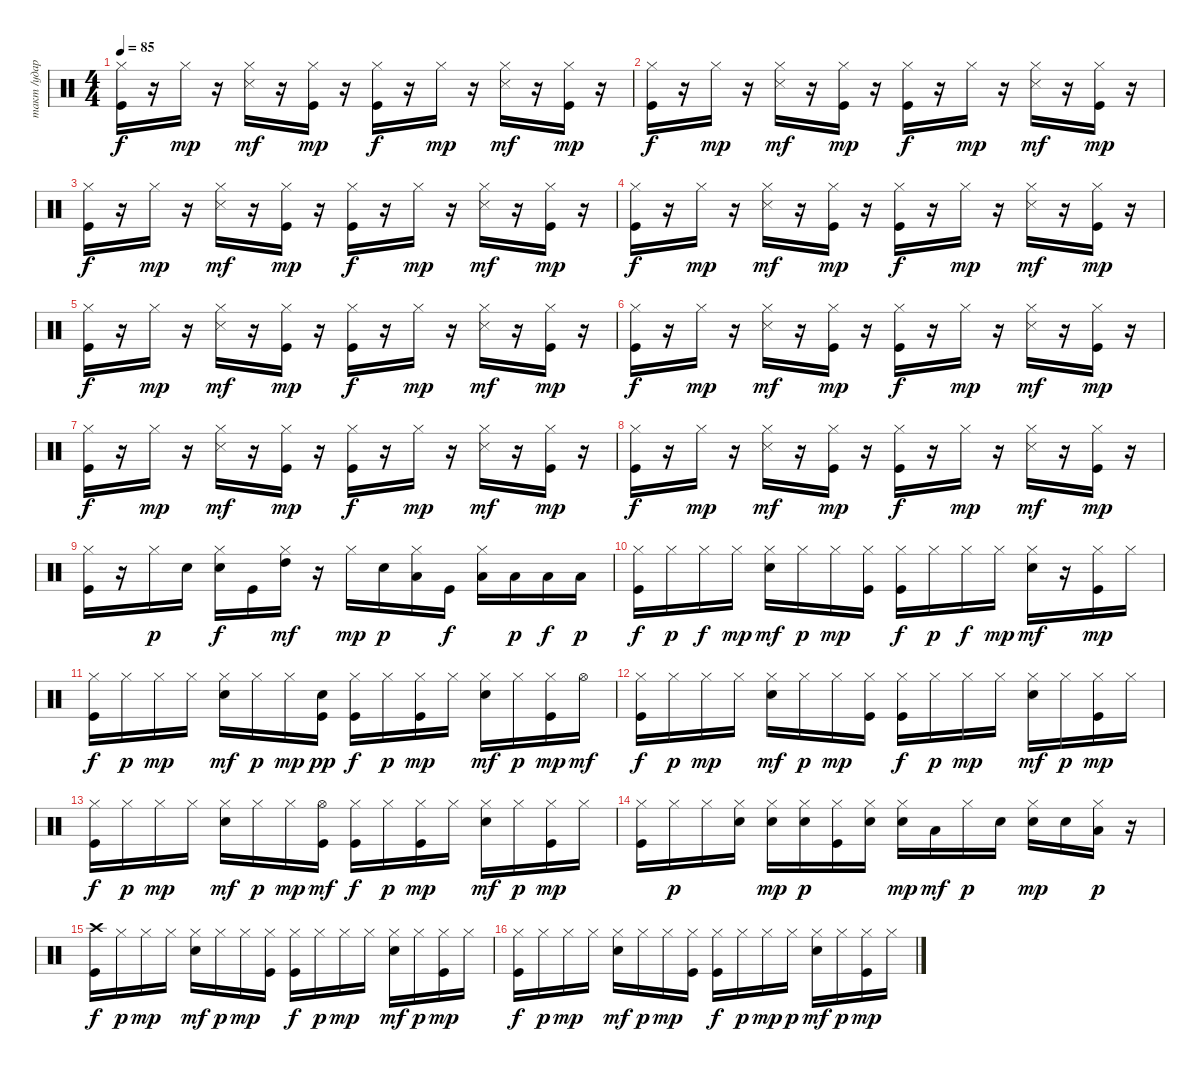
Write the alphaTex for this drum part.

\track ("такт /ударные/" "такт /удар") {instrument percussion}
\staff {score}
\articulation defaults
\ts (4 4)
\tempo 85
\clef neutral
\ks c
("Kick (hit)" "Hi-Hat (closed)").16{dy f} r.16 "Hi-Hat (closed)".16{dy mp} r.16 ("Hi-Hat (closed)" "Snare (side stick) 3").16{dy mf} r.16 ("Kick (hit)" "Hi-Hat (closed)").16{dy mp} r.16 ("Kick (hit)" "Hi-Hat (closed)").16{dy f} r.16 "Hi-Hat (closed)".16{dy mp} r.16 ("Hi-Hat (closed)" "Snare (side stick) 3").16{dy mf} r.16 ("Kick (hit)" "Hi-Hat (closed)").16{dy mp} r.16 |
("Kick (hit)" "Hi-Hat (closed)").16{dy f} r.16 "Hi-Hat (closed)".16{dy mp} r.16 ("Hi-Hat (closed)" "Snare (side stick) 3").16{dy mf} r.16 ("Kick (hit)" "Hi-Hat (closed)").16{dy mp} r.16 ("Kick (hit)" "Hi-Hat (closed)").16{dy f} r.16 "Hi-Hat (closed)".16{dy mp} r.16 ("Hi-Hat (closed)" "Snare (side stick) 3").16{dy mf} r.16 ("Kick (hit)" "Hi-Hat (closed)").16{dy mp} r.16 |
("Kick (hit)" "Hi-Hat (closed)").16{dy f} r.16 "Hi-Hat (closed)".16{dy mp} r.16 ("Hi-Hat (closed)" "Snare (side stick) 3").16{dy mf} r.16 ("Kick (hit)" "Hi-Hat (closed)").16{dy mp} r.16 ("Kick (hit)" "Hi-Hat (closed)").16{dy f} r.16 "Hi-Hat (closed)".16{dy mp} r.16 ("Hi-Hat (closed)" "Snare (side stick) 3").16{dy mf} r.16 ("Kick (hit)" "Hi-Hat (closed)").16{dy mp} r.16 |
("Kick (hit)" "Hi-Hat (closed)").16{dy f} r.16 "Hi-Hat (closed)".16{dy mp} r.16 ("Hi-Hat (closed)" "Snare (side stick) 3").16{dy mf} r.16 ("Kick (hit)" "Hi-Hat (closed)").16{dy mp} r.16 ("Kick (hit)" "Hi-Hat (closed)").16{dy f} r.16 "Hi-Hat (closed)".16{dy mp} r.16 ("Hi-Hat (closed)" "Snare (side stick) 3").16{dy mf} r.16 ("Kick (hit)" "Hi-Hat (closed)").16{dy mp} r.16 |
("Kick (hit)" "Hi-Hat (closed)").16{dy f} r.16 "Hi-Hat (closed)".16{dy mp} r.16 ("Hi-Hat (closed)" "Snare (side stick) 3").16{dy mf} r.16 ("Kick (hit)" "Hi-Hat (closed)").16{dy mp} r.16 ("Kick (hit)" "Hi-Hat (closed)").16{dy f} r.16 "Hi-Hat (closed)".16{dy mp} r.16 ("Hi-Hat (closed)" "Snare (side stick) 3").16{dy mf} r.16 ("Kick (hit)" "Hi-Hat (closed)").16{dy mp} r.16 |
("Kick (hit)" "Hi-Hat (closed)").16{dy f} r.16 "Hi-Hat (closed)".16{dy mp} r.16 ("Hi-Hat (closed)" "Snare (side stick) 3").16{dy mf} r.16 ("Kick (hit)" "Hi-Hat (closed)").16{dy mp} r.16 ("Kick (hit)" "Hi-Hat (closed)").16{dy f} r.16 "Hi-Hat (closed)".16{dy mp} r.16 ("Hi-Hat (closed)" "Snare (side stick) 3").16{dy mf} r.16 ("Kick (hit)" "Hi-Hat (closed)").16{dy mp} r.16 |
("Kick (hit)" "Hi-Hat (closed)").16{dy f} r.16 "Hi-Hat (closed)".16{dy mp} r.16 ("Hi-Hat (closed)" "Snare (side stick) 3").16{dy mf} r.16 ("Kick (hit)" "Hi-Hat (closed)").16{dy mp} r.16 ("Kick (hit)" "Hi-Hat (closed)").16{dy f} r.16 "Hi-Hat (closed)".16{dy mp} r.16 ("Hi-Hat (closed)" "Snare (side stick) 3").16{dy mf} r.16 ("Kick (hit)" "Hi-Hat (closed)").16{dy mp} r.16 |
("Kick (hit)" "Hi-Hat (closed)").16{dy f} r.16 "Hi-Hat (closed)".16{dy mp} r.16 ("Hi-Hat (closed)" "Snare (side stick) 3").16{dy mf} r.16 ("Kick (hit)" "Hi-Hat (closed)").16{dy mp} r.16 ("Kick (hit)" "Hi-Hat (closed)").16{dy f} r.16 "Hi-Hat (closed)".16{dy mp} r.16 ("Hi-Hat (closed)" "Snare (side stick) 3").16{dy mf} r.16 ("Kick (hit)" "Hi-Hat (closed)").16{dy mp} r.16 |
("Kick (hit)" "Hi-Hat (closed)").16 r.16 "Hi-Hat (closed)".16{dy p} "Snare (hit) 2".16 ("Snare (hit) 2" "Hi-Hat (closed)").16{dy f} "Kick (hit)".16 ("Hi-Hat (closed)" "High Tom (hit)").16{dy mf} r.16 "Hi-Hat (closed)".16{dy mp} "Snare (hit) 2".16{dy p} ("Hi-Hat (closed)" "Low Tom (hit)").16 "Kick (hit)".16{dy f} ("Hi-Hat (closed)" "Low Floor Tom (hit)").16 "Low Floor Tom (hit)".16{dy p} "Low Floor Tom (hit)".16{dy f} "Low Floor Tom (hit)".16{dy p} |
("Kick (hit)" "Hi-Hat (closed)").16{dy f} "Hi-Hat (closed)".16{dy p} "Hi-Hat (closed)".16{dy f} "Hi-Hat (closed)".16{dy mp} ("Snare (hit) 2" "Hi-Hat (closed)").16{dy mf} "Hi-Hat (closed)".16{dy p} "Hi-Hat (closed)".16{dy mp} ("Kick (hit)" "Hi-Hat (closed)").16 ("Kick (hit)" "Hi-Hat (closed)").16{dy f} "Hi-Hat (closed)".16{dy p} "Hi-Hat (closed)".16{dy f} "Hi-Hat (closed)".16{dy mp} ("Snare (hit) 2" "Hi-Hat (closed)").16{dy mf} r.16 ("Kick (hit)" "Hi-Hat (closed)").16{dy mp} "Hi-Hat (closed)".16 |
("Kick (hit)" "Hi-Hat (closed)").16{dy f} "Hi-Hat (closed)".16{dy p} "Hi-Hat (closed)".16{dy mp} "Hi-Hat (closed)".16 ("Snare (hit) 2" "Hi-Hat (closed)").16{dy mf} "Hi-Hat (closed)".16{dy p} "Hi-Hat (closed)".16{dy mp} ("Kick (hit)" "Snare (hit) 2").16{dy pp} ("Kick (hit)" "Hi-Hat (closed)").16{dy f} "Hi-Hat (closed)".16{dy p} ("Kick (hit)" "Hi-Hat (closed)").16{dy mp} "Hi-Hat (closed)".16 ("Snare (hit) 2" "Hi-Hat (closed)").16{dy mf} "Hi-Hat (closed)".16{dy p} ("Kick (hit)" "Hi-Hat (closed)").16{dy mp} "Hi-Hat (open)".16{dy mf} |
("Kick (hit)" "Hi-Hat (closed)").16{dy f} "Hi-Hat (closed)".16{dy p} "Hi-Hat (closed)".16{dy mp} "Hi-Hat (closed)".16 ("Snare (hit) 2" "Hi-Hat (closed)").16{dy mf} "Hi-Hat (closed)".16{dy p} "Hi-Hat (closed)".16{dy mp} ("Kick (hit)" "Hi-Hat (closed)").16 ("Kick (hit)" "Hi-Hat (closed)").16{dy f} "Hi-Hat (closed)".16{dy p} "Hi-Hat (closed)".16{dy mp} "Hi-Hat (closed)".16 ("Snare (hit) 2" "Hi-Hat (closed)").16{dy mf} "Hi-Hat (closed)".16{dy p} ("Kick (hit)" "Hi-Hat (closed)").16{dy mp} "Hi-Hat (closed)".16 |
("Kick (hit)" "Hi-Hat (closed)").16{dy f} "Hi-Hat (closed)".16{dy p} "Hi-Hat (closed)".16{dy mp} "Hi-Hat (closed)".16 ("Snare (hit) 2" "Hi-Hat (closed)").16{dy mf} "Hi-Hat (closed)".16{dy p} "Hi-Hat (closed)".16{dy mp} ("Kick (hit)" "Hi-Hat (open)").16{dy mf} ("Kick (hit)" "Hi-Hat (closed)").16{dy f} "Hi-Hat (closed)".16{dy p} ("Kick (hit)" "Hi-Hat (closed)").16{dy mp} "Hi-Hat (closed)".16 ("Snare (hit) 2" "Hi-Hat (closed)").16{dy mf} "Hi-Hat (closed)".16{dy p} ("Kick (hit)" "Hi-Hat (closed)").16{dy mp} "Hi-Hat (closed)".16 |
("Kick (hit)" "Hi-Hat (closed)").16 "Hi-Hat (closed)".16{dy p} "Hi-Hat (closed)".16 ("Snare (hit) 2" "Hi-Hat (closed)").16 ("Snare (hit) 2" "Hi-Hat (closed)").16{dy mp} ("Snare (hit) 2" "Hi-Hat (closed)").16{dy p} ("Kick (hit)" "Hi-Hat (closed)").16 ("Snare (hit) 2" "Hi-Hat (closed)").16 ("Snare (hit) 2" "Hi-Hat (closed)").16{dy mp} "Low Tom (hit)".16{dy mf} "Hi-Hat (closed)".16{dy p} "Snare (hit) 2".16 ("Snare (hit) 2" "Hi-Hat (closed)").16{dy mp} "Snare (hit) 2".16 ("Hi-Hat (closed)" "Low Floor Tom (hit)").16{dy p} r.16 |
("Kick (hit)" "Crash high (hit)").16{dy f} "Hi-Hat (closed)".16{dy p} "Hi-Hat (closed)".16{dy mp} "Hi-Hat (closed)".16 ("Snare (hit) 2" "Hi-Hat (closed)").16{dy mf} "Hi-Hat (closed)".16{dy p} "Hi-Hat (closed)".16{dy mp} ("Kick (hit)" "Hi-Hat (closed)").16 ("Kick (hit)" "Hi-Hat (closed)").16{dy f} "Hi-Hat (closed)".16{dy p} "Hi-Hat (closed)".16{dy mp} "Hi-Hat (closed)".16 ("Snare (hit) 2" "Hi-Hat (closed)").16{dy mf} "Hi-Hat (closed)".16{dy p} ("Kick (hit)" "Hi-Hat (closed)").16{dy mp} "Hi-Hat (closed)".16 |
("Kick (hit)" "Hi-Hat (closed)").16{dy f} "Hi-Hat (closed)".16{dy p} "Hi-Hat (closed)".16{dy mp} "Hi-Hat (closed)".16 ("Snare (hit) 2" "Hi-Hat (closed)").16{dy mf} "Hi-Hat (closed)".16{dy p} "Hi-Hat (closed)".16{dy mp} ("Kick (hit)" "Hi-Hat (closed)").16 ("Kick (hit)" "Hi-Hat (closed)").16{dy f} "Hi-Hat (closed)".16{dy p} "Hi-Hat (closed)".16{dy mp} "Hi-Hat (closed)".16{dy p} ("Snare (hit) 2" "Hi-Hat (closed)").16{dy mf} "Hi-Hat (closed)".16{dy p} ("Kick (hit)" "Hi-Hat (closed)").16{dy mp} "Hi-Hat (closed)".16
